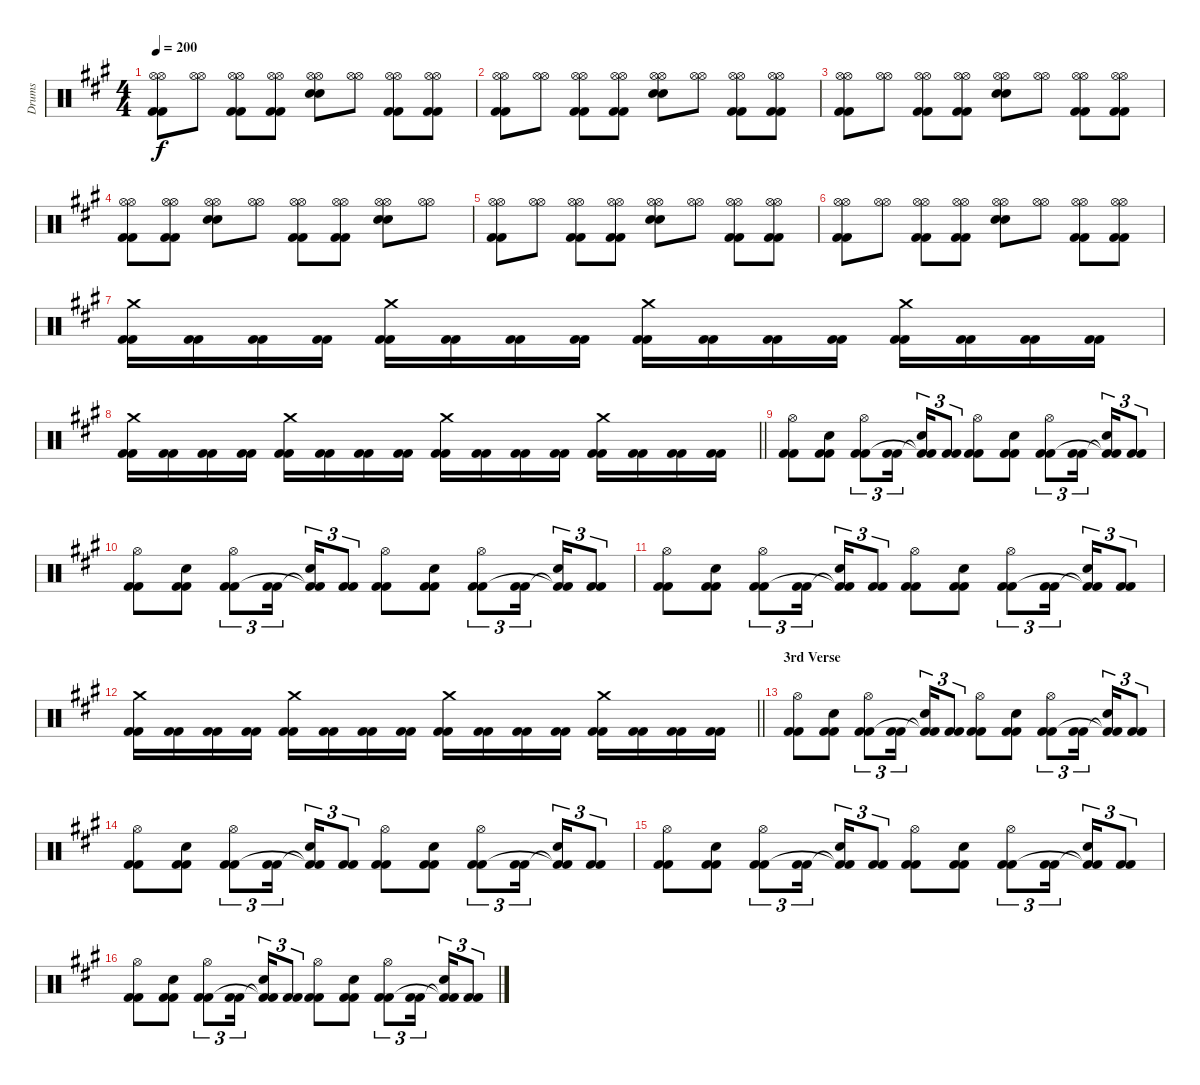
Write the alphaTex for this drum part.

\track ("Drums" "Drums") {instrument percussion}
\staff {score}
\articulation defaults
\ts (4 4)
\tempo 200
\clef neutral
\ks f#minor
("Hi-Hat (open)" "Hi-Hat (open)" "Kick (hit) 2" "Kick (hit) 2").8{dy f} ("Hi-Hat (open)" "Hi-Hat (open)").8 ("Hi-Hat (open)" "Hi-Hat (open)" "Kick (hit) 2" "Kick (hit) 2").8 ("Hi-Hat (open)" "Hi-Hat (open)" "Kick (hit) 2" "Kick (hit) 2").8 ("Hi-Hat (open)" "Hi-Hat (open)" "Snare (hit) 2" "Snare (hit) 2").8 ("Hi-Hat (open)" "Hi-Hat (open)").8 ("Hi-Hat (open)" "Hi-Hat (open)" "Kick (hit) 2" "Kick (hit) 2").8 ("Hi-Hat (open)" "Hi-Hat (open)" "Kick (hit) 2" "Kick (hit) 2").8 |
("Hi-Hat (open)" "Hi-Hat (open)" "Kick (hit) 2" "Kick (hit) 2").8 ("Hi-Hat (open)" "Hi-Hat (open)").8 ("Hi-Hat (open)" "Hi-Hat (open)" "Kick (hit) 2" "Kick (hit) 2").8 ("Hi-Hat (open)" "Hi-Hat (open)" "Kick (hit) 2" "Kick (hit) 2").8 ("Hi-Hat (open)" "Hi-Hat (open)" "Snare (hit) 2" "Snare (hit) 2").8 ("Hi-Hat (open)" "Hi-Hat (open)").8 ("Hi-Hat (open)" "Hi-Hat (open)" "Kick (hit) 2" "Kick (hit) 2").8 ("Hi-Hat (open)" "Hi-Hat (open)" "Kick (hit) 2" "Kick (hit) 2").8 |
("Hi-Hat (open)" "Hi-Hat (open)" "Kick (hit) 2" "Kick (hit) 2").8 ("Hi-Hat (open)" "Hi-Hat (open)").8 ("Hi-Hat (open)" "Hi-Hat (open)" "Kick (hit) 2" "Kick (hit) 2").8 ("Hi-Hat (open)" "Hi-Hat (open)" "Kick (hit) 2" "Kick (hit) 2").8 ("Hi-Hat (open)" "Hi-Hat (open)" "Snare (hit) 2" "Snare (hit) 2").8 ("Hi-Hat (open)" "Hi-Hat (open)").8 ("Hi-Hat (open)" "Hi-Hat (open)" "Kick (hit) 2" "Kick (hit) 2").8 ("Hi-Hat (open)" "Hi-Hat (open)" "Kick (hit) 2" "Kick (hit) 2").8 |
("Hi-Hat (open)" "Hi-Hat (open)" "Kick (hit) 2" "Kick (hit) 2").8 ("Hi-Hat (open)" "Hi-Hat (open)" "Kick (hit) 2" "Kick (hit) 2").8 ("Hi-Hat (open)" "Hi-Hat (open)" "Snare (hit) 2" "Snare (hit) 2").8 ("Hi-Hat (open)" "Hi-Hat (open)").8 ("Hi-Hat (open)" "Hi-Hat (open)" "Kick (hit) 2" "Kick (hit) 2").8 ("Hi-Hat (open)" "Hi-Hat (open)" "Kick (hit) 2" "Kick (hit) 2").8 ("Hi-Hat (open)" "Hi-Hat (open)" "Snare (hit) 2" "Snare (hit) 2").8 ("Hi-Hat (open)" "Hi-Hat (open)").8 |
("Hi-Hat (open)" "Hi-Hat (open)" "Kick (hit) 2" "Kick (hit) 2").8 ("Hi-Hat (open)" "Hi-Hat (open)").8 ("Hi-Hat (open)" "Hi-Hat (open)" "Kick (hit) 2" "Kick (hit) 2").8 ("Hi-Hat (open)" "Hi-Hat (open)" "Kick (hit) 2" "Kick (hit) 2").8 ("Hi-Hat (open)" "Hi-Hat (open)" "Snare (hit) 2" "Snare (hit) 2").8 ("Hi-Hat (open)" "Hi-Hat (open)").8 ("Hi-Hat (open)" "Hi-Hat (open)" "Kick (hit) 2" "Kick (hit) 2").8 ("Hi-Hat (open)" "Hi-Hat (open)" "Kick (hit) 2" "Kick (hit) 2").8 |
("Hi-Hat (open)" "Hi-Hat (open)" "Kick (hit) 2" "Kick (hit) 2").8 ("Hi-Hat (open)" "Hi-Hat (open)").8 ("Hi-Hat (open)" "Hi-Hat (open)" "Kick (hit) 2" "Kick (hit) 2").8 ("Hi-Hat (open)" "Hi-Hat (open)" "Kick (hit) 2" "Kick (hit) 2").8 ("Hi-Hat (open)" "Hi-Hat (open)" "Snare (hit) 2" "Snare (hit) 2").8 ("Hi-Hat (open)" "Hi-Hat (open)").8 ("Hi-Hat (open)" "Hi-Hat (open)" "Kick (hit) 2" "Kick (hit) 2").8 ("Hi-Hat (open)" "Hi-Hat (open)" "Kick (hit) 2" "Kick (hit) 2").8 |
("Crash medium (hit)" "Kick (hit) 2" "Kick (hit) 2").16 ("Kick (hit) 2" "Kick (hit) 2").16 ("Kick (hit) 2" "Kick (hit) 2").16 ("Kick (hit) 2" "Kick (hit) 2").16 ("Crash medium (hit)" "Kick (hit) 2" "Kick (hit) 2").16 ("Kick (hit) 2" "Kick (hit) 2").16 ("Kick (hit) 2" "Kick (hit) 2").16 ("Kick (hit) 2" "Kick (hit) 2").16 ("Crash medium (hit)" "Kick (hit) 2" "Kick (hit) 2").16 ("Kick (hit) 2" "Kick (hit) 2").16 ("Kick (hit) 2" "Kick (hit) 2").16 ("Kick (hit) 2" "Kick (hit) 2").16 ("Crash medium (hit)" "Kick (hit) 2" "Kick (hit) 2").16 ("Kick (hit) 2" "Kick (hit) 2").16 ("Kick (hit) 2" "Kick (hit) 2").16 ("Kick (hit) 2" "Kick (hit) 2").16 |
\barLineRight lightlight
("Crash medium (hit)" "Kick (hit) 2" "Kick (hit) 2").16 ("Kick (hit) 2" "Kick (hit) 2").16 ("Kick (hit) 2" "Kick (hit) 2").16 ("Kick (hit) 2" "Kick (hit) 2").16 ("Crash medium (hit)" "Kick (hit) 2" "Kick (hit) 2").16 ("Kick (hit) 2" "Kick (hit) 2").16 ("Kick (hit) 2" "Kick (hit) 2").16 ("Kick (hit) 2" "Kick (hit) 2").16 ("Crash medium (hit)" "Kick (hit) 2" "Kick (hit) 2").16 ("Kick (hit) 2" "Kick (hit) 2").16 ("Kick (hit) 2" "Kick (hit) 2").16 ("Kick (hit) 2" "Kick (hit) 2").16 ("Crash medium (hit)" "Kick (hit) 2" "Kick (hit) 2").16 ("Kick (hit) 2" "Kick (hit) 2").16 ("Kick (hit) 2" "Kick (hit) 2").16 ("Kick (hit) 2" "Kick (hit) 2").16 |
("Hi-Hat (open)" "Kick (hit) 2" "Kick (hit) 2").8 ("Snare (hit) 2" "Kick (hit) 2" "Kick (hit) 2").8 ("Hi-Hat (open)" "Kick (hit) 2" "Kick (hit) 2").8{tu (3 2)} ("Kick (hit) 2" "Kick (hit) 2").16{tu (3 2) beam splitsecondary} ("Snare (hit) 2" "Kick (hit) 2"{t} "Kick (hit) 2"{t}).16{tu (3 2)} ("Kick (hit) 2" "Kick (hit) 2").8{tu (3 2)} ("Hi-Hat (open)" "Kick (hit) 2" "Kick (hit) 2").8 ("Snare (hit) 2" "Kick (hit) 2" "Kick (hit) 2").8 ("Hi-Hat (open)" "Kick (hit) 2" "Kick (hit) 2").8{tu (3 2)} ("Kick (hit) 2" "Kick (hit) 2").16{tu (3 2) beam splitsecondary} ("Snare (hit) 2" "Kick (hit) 2"{t} "Kick (hit) 2"{t}).16{tu (3 2)} ("Kick (hit) 2" "Kick (hit) 2").8{tu (3 2)} |
("Hi-Hat (open)" "Kick (hit) 2" "Kick (hit) 2").8 ("Snare (hit) 2" "Kick (hit) 2" "Kick (hit) 2").8 ("Hi-Hat (open)" "Kick (hit) 2" "Kick (hit) 2").8{tu (3 2)} ("Kick (hit) 2" "Kick (hit) 2").16{tu (3 2) beam splitsecondary} ("Snare (hit) 2" "Kick (hit) 2"{t} "Kick (hit) 2"{t}).16{tu (3 2)} ("Kick (hit) 2" "Kick (hit) 2").8{tu (3 2)} ("Hi-Hat (open)" "Kick (hit) 2" "Kick (hit) 2").8 ("Snare (hit) 2" "Kick (hit) 2" "Kick (hit) 2").8 ("Hi-Hat (open)" "Kick (hit) 2" "Kick (hit) 2").8{tu (3 2)} ("Kick (hit) 2" "Kick (hit) 2").16{tu (3 2) beam splitsecondary} ("Snare (hit) 2" "Kick (hit) 2"{t} "Kick (hit) 2"{t}).16{tu (3 2)} ("Kick (hit) 2" "Kick (hit) 2").8{tu (3 2)} |
("Hi-Hat (open)" "Kick (hit) 2" "Kick (hit) 2").8 ("Snare (hit) 2" "Kick (hit) 2" "Kick (hit) 2").8 ("Hi-Hat (open)" "Kick (hit) 2" "Kick (hit) 2").8{tu (3 2)} ("Kick (hit) 2" "Kick (hit) 2").16{tu (3 2) beam splitsecondary} ("Snare (hit) 2" "Kick (hit) 2"{t} "Kick (hit) 2"{t}).16{tu (3 2)} ("Kick (hit) 2" "Kick (hit) 2").8{tu (3 2)} ("Hi-Hat (open)" "Kick (hit) 2" "Kick (hit) 2").8 ("Snare (hit) 2" "Kick (hit) 2" "Kick (hit) 2").8 ("Hi-Hat (open)" "Kick (hit) 2" "Kick (hit) 2").8{tu (3 2)} ("Kick (hit) 2" "Kick (hit) 2").16{tu (3 2) beam splitsecondary} ("Snare (hit) 2" "Kick (hit) 2"{t} "Kick (hit) 2"{t}).16{tu (3 2)} ("Kick (hit) 2" "Kick (hit) 2").8{tu (3 2)} |
\barLineRight lightlight
("Crash medium (hit)" "Kick (hit) 2" "Kick (hit) 2").16 ("Kick (hit) 2" "Kick (hit) 2").16 ("Kick (hit) 2" "Kick (hit) 2").16 ("Kick (hit) 2" "Kick (hit) 2").16 ("Crash medium (hit)" "Kick (hit) 2" "Kick (hit) 2").16 ("Kick (hit) 2" "Kick (hit) 2").16 ("Kick (hit) 2" "Kick (hit) 2").16 ("Kick (hit) 2" "Kick (hit) 2").16 ("Crash medium (hit)" "Kick (hit) 2" "Kick (hit) 2").16 ("Kick (hit) 2" "Kick (hit) 2").16 ("Kick (hit) 2" "Kick (hit) 2").16 ("Kick (hit) 2" "Kick (hit) 2").16 ("Crash medium (hit)" "Kick (hit) 2" "Kick (hit) 2").16 ("Kick (hit) 2" "Kick (hit) 2").16 ("Kick (hit) 2" "Kick (hit) 2").16 ("Kick (hit) 2" "Kick (hit) 2").16 |
\section ("" "3rd Verse")
("Hi-Hat (open)" "Kick (hit) 2" "Kick (hit) 2").8 ("Snare (hit) 2" "Kick (hit) 2" "Kick (hit) 2").8 ("Hi-Hat (open)" "Kick (hit) 2" "Kick (hit) 2").8{tu (3 2)} ("Kick (hit) 2" "Kick (hit) 2").16{tu (3 2) beam splitsecondary} ("Snare (hit) 2" "Kick (hit) 2"{t} "Kick (hit) 2"{t}).16{tu (3 2)} ("Kick (hit) 2" "Kick (hit) 2").8{tu (3 2)} ("Hi-Hat (open)" "Kick (hit) 2" "Kick (hit) 2").8 ("Snare (hit) 2" "Kick (hit) 2" "Kick (hit) 2").8 ("Hi-Hat (open)" "Kick (hit) 2" "Kick (hit) 2").8{tu (3 2)} ("Kick (hit) 2" "Kick (hit) 2").16{tu (3 2) beam splitsecondary} ("Snare (hit) 2" "Kick (hit) 2"{t} "Kick (hit) 2"{t}).16{tu (3 2)} ("Kick (hit) 2" "Kick (hit) 2").8{tu (3 2)} |
("Hi-Hat (open)" "Kick (hit) 2" "Kick (hit) 2").8 ("Snare (hit) 2" "Kick (hit) 2" "Kick (hit) 2").8 ("Hi-Hat (open)" "Kick (hit) 2" "Kick (hit) 2").8{tu (3 2)} ("Kick (hit) 2" "Kick (hit) 2").16{tu (3 2) beam splitsecondary} ("Snare (hit) 2" "Kick (hit) 2"{t} "Kick (hit) 2"{t}).16{tu (3 2)} ("Kick (hit) 2" "Kick (hit) 2").8{tu (3 2)} ("Hi-Hat (open)" "Kick (hit) 2" "Kick (hit) 2").8 ("Snare (hit) 2" "Kick (hit) 2" "Kick (hit) 2").8 ("Hi-Hat (open)" "Kick (hit) 2" "Kick (hit) 2").8{tu (3 2)} ("Kick (hit) 2" "Kick (hit) 2").16{tu (3 2) beam splitsecondary} ("Snare (hit) 2" "Kick (hit) 2"{t} "Kick (hit) 2"{t}).16{tu (3 2)} ("Kick (hit) 2" "Kick (hit) 2").8{tu (3 2)} |
("Hi-Hat (open)" "Kick (hit) 2" "Kick (hit) 2").8 ("Snare (hit) 2" "Kick (hit) 2" "Kick (hit) 2").8 ("Hi-Hat (open)" "Kick (hit) 2" "Kick (hit) 2").8{tu (3 2)} ("Kick (hit) 2" "Kick (hit) 2").16{tu (3 2) beam splitsecondary} ("Snare (hit) 2" "Kick (hit) 2"{t} "Kick (hit) 2"{t}).16{tu (3 2)} ("Kick (hit) 2" "Kick (hit) 2").8{tu (3 2)} ("Hi-Hat (open)" "Kick (hit) 2" "Kick (hit) 2").8 ("Snare (hit) 2" "Kick (hit) 2" "Kick (hit) 2").8 ("Hi-Hat (open)" "Kick (hit) 2" "Kick (hit) 2").8{tu (3 2)} ("Kick (hit) 2" "Kick (hit) 2").16{tu (3 2) beam splitsecondary} ("Snare (hit) 2" "Kick (hit) 2"{t} "Kick (hit) 2"{t}).16{tu (3 2)} ("Kick (hit) 2" "Kick (hit) 2").8{tu (3 2)} |
("Hi-Hat (open)" "Kick (hit) 2" "Kick (hit) 2").8 ("Snare (hit) 2" "Kick (hit) 2" "Kick (hit) 2").8 ("Hi-Hat (open)" "Kick (hit) 2" "Kick (hit) 2").8{tu (3 2)} ("Kick (hit) 2" "Kick (hit) 2").16{tu (3 2) beam splitsecondary} ("Snare (hit) 2" "Kick (hit) 2"{t} "Kick (hit) 2"{t}).16{tu (3 2)} ("Kick (hit) 2" "Kick (hit) 2").8{tu (3 2)} ("Hi-Hat (open)" "Kick (hit) 2" "Kick (hit) 2").8 ("Snare (hit) 2" "Kick (hit) 2" "Kick (hit) 2").8 ("Hi-Hat (open)" "Kick (hit) 2" "Kick (hit) 2").8{tu (3 2)} ("Kick (hit) 2" "Kick (hit) 2").16{tu (3 2) beam splitsecondary} ("Snare (hit) 2" "Kick (hit) 2"{t} "Kick (hit) 2"{t}).16{tu (3 2)} ("Kick (hit) 2" "Kick (hit) 2").8{tu (3 2)}
